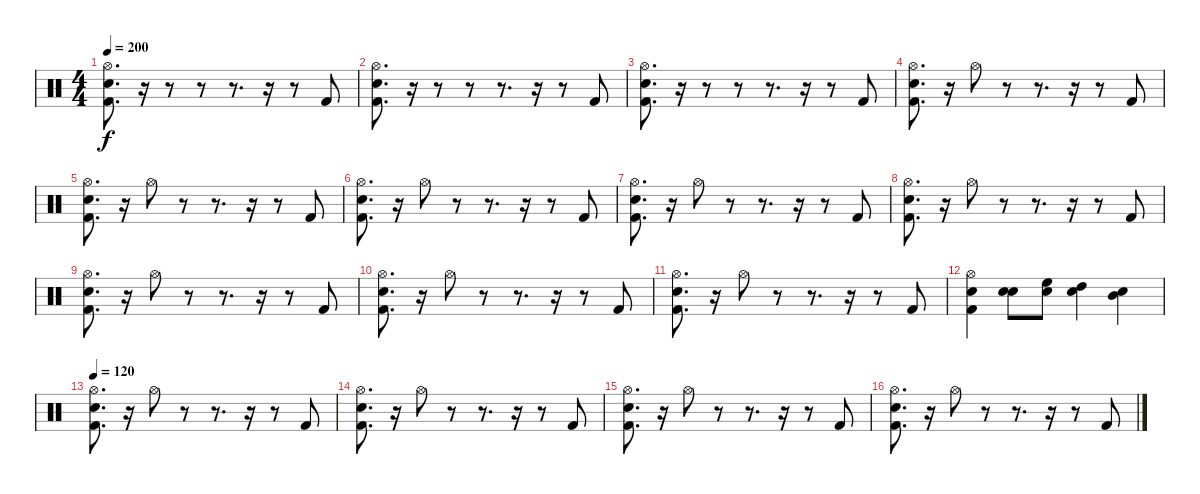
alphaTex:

\track "" {instrument percussion}
\staff {score}
\articulation defaults
\ts (4 4)
\tempo 200
\clef neutral
\ks c
("Snare (hit)" "Kick (hit) 2" "Hi-Hat (open)").8{d dy f} r.16 r.8 r.8 r.8{d} r.16 r.8 "Kick (hit) 2".8 |
("Snare (hit)" "Kick (hit) 2" "Hi-Hat (open)").8{d} r.16 r.8 r.8 r.8{d} r.16 r.8 "Kick (hit) 2".8 |
("Snare (hit)" "Kick (hit) 2" "Hi-Hat (open)").8{d} r.16 r.8 r.8 r.8{d} r.16 r.8 "Kick (hit) 2".8 |
("Snare (hit)" "Kick (hit) 2" "Hi-Hat (open)").8{d} r.16 "Hi-Hat (open)".8 r.8 r.8{d} r.16 r.8 "Kick (hit) 2".8 |
("Snare (hit)" "Kick (hit) 2" "Hi-Hat (open)").8{d} r.16 "Hi-Hat (open)".8 r.8 r.8{d} r.16 r.8 "Kick (hit) 2".8 |
("Snare (hit)" "Kick (hit) 2" "Hi-Hat (open)").8{d} r.16 "Hi-Hat (open)".8 r.8 r.8{d} r.16 r.8 "Kick (hit) 2".8 |
("Snare (hit)" "Kick (hit) 2" "Hi-Hat (open)").8{d} r.16 "Hi-Hat (open)".8 r.8 r.8{d} r.16 r.8 "Kick (hit) 2".8 |
("Snare (hit)" "Kick (hit) 2" "Hi-Hat (open)").8{d} r.16 "Hi-Hat (open)".8 r.8 r.8{d} r.16 r.8 "Kick (hit) 2".8 |
("Snare (hit)" "Kick (hit) 2" "Hi-Hat (open)").8{d} r.16 "Hi-Hat (open)".8 r.8 r.8{d} r.16 r.8 "Kick (hit) 2".8 |
("Snare (hit)" "Kick (hit) 2" "Hi-Hat (open)").8{d} r.16 "Hi-Hat (open)".8 r.8 r.8{d} r.16 r.8 "Kick (hit) 2".8 |
("Snare (hit)" "Kick (hit) 2" "Hi-Hat (open)").8{d} r.16 "Hi-Hat (open)".8 r.8 r.8{d} r.16 r.8 "Kick (hit) 2".8 |
("Snare (hit)" "Kick (hit) 2" "Hi-Hat (open)").4 ("Snare (hit)" "Snare (hit) 2").8 ("Snare (hit)" "High Floor Tom (hit)").8 ("Snare (hit)" "High Tom (hit)").4 ("Snare (hit)" "Mid Tom (hit)").4 |
\tempo 120
("Snare (hit)" "Kick (hit) 2" "Hi-Hat (open)").8{d} r.16 "Hi-Hat (open)".8 r.8 r.8{d} r.16 r.8 "Kick (hit) 2".8 |
("Snare (hit)" "Kick (hit) 2" "Hi-Hat (open)").8{d} r.16 "Hi-Hat (open)".8 r.8 r.8{d} r.16 r.8 "Kick (hit) 2".8 |
("Snare (hit)" "Kick (hit) 2" "Hi-Hat (open)").8{d} r.16 "Hi-Hat (open)".8 r.8 r.8{d} r.16 r.8 "Kick (hit) 2".8 |
("Snare (hit)" "Kick (hit) 2" "Hi-Hat (open)").8{d} r.16 "Hi-Hat (open)".8 r.8 r.8{d} r.16 r.8 "Kick (hit) 2".8
